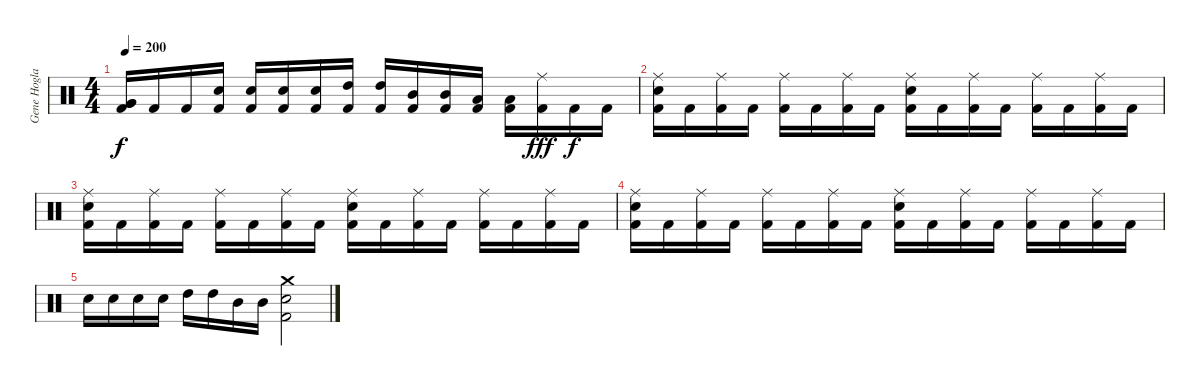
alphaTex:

\track ("Gene Hoglan" "Gene Hogla") {instrument percussion}
\staff {score}
\articulation defaults
\ts (4 4)
\tempo 200
\clef neutral
\ks c
("Very Low Tom (hit)" "Very Low Tom (hit)" "Kick (hit) 2").16{dy f} "Kick (hit) 2".16 "Kick (hit) 2".16 ("Snare (hit) 2" "Kick (hit) 2").16 ("Snare (hit) 2" "Kick (hit) 2").16 ("Snare (hit) 2" "Kick (hit) 2").16 ("Snare (hit) 2" "Kick (hit) 2").16 ("High Tom (hit)" "Kick (hit) 2").16 ("High Tom (hit)" "Kick (hit) 2").16 ("Mid Tom (hit)" "Kick (hit) 2").16 ("Mid Tom (hit)" "Kick (hit) 2").16 ("Low Tom (hit)" "Kick (hit) 2").16 ("Low Tom (hit)" "Kick (hit) 2").16 ("Ride (middle)" "Kick (hit) 2").16{dy fff} "Kick (hit) 2".16{dy f} "Kick (hit) 2".16 |
("Ride (middle)" "Snare (hit) 2" "Kick (hit) 2").16 "Kick (hit) 2".16 ("Ride (middle)" "Kick (hit) 2").16 "Kick (hit) 2".16 ("Ride (middle)" "Kick (hit) 2").16 "Kick (hit) 2".16 ("Ride (middle)" "Kick (hit) 2").16 "Kick (hit) 2".16 ("Ride (middle)" "Snare (hit) 2" "Kick (hit) 2").16 "Kick (hit) 2".16 ("Ride (middle)" "Kick (hit) 2").16 "Kick (hit) 2".16 ("Ride (middle)" "Kick (hit) 2").16 "Kick (hit) 2".16 ("Ride (middle)" "Kick (hit) 2").16 "Kick (hit) 2".16 |
("Ride (middle)" "Snare (hit) 2" "Kick (hit) 2").16 "Kick (hit) 2".16 ("Ride (middle)" "Kick (hit) 2").16 "Kick (hit) 2".16 ("Ride (middle)" "Kick (hit) 2").16 "Kick (hit) 2".16 ("Ride (middle)" "Kick (hit) 2").16 "Kick (hit) 2".16 ("Ride (middle)" "Snare (hit) 2" "Kick (hit) 2").16 "Kick (hit) 2".16 ("Ride (middle)" "Kick (hit) 2").16 "Kick (hit) 2".16 ("Ride (middle)" "Kick (hit) 2").16 "Kick (hit) 2".16 ("Ride (middle)" "Kick (hit) 2").16 "Kick (hit) 2".16 |
("Ride (middle)" "Snare (hit) 2" "Kick (hit) 2").16 "Kick (hit) 2".16 ("Ride (middle)" "Kick (hit) 2").16 "Kick (hit) 2".16 ("Ride (middle)" "Kick (hit) 2").16 "Kick (hit) 2".16 ("Ride (middle)" "Kick (hit) 2").16 "Kick (hit) 2".16 ("Ride (middle)" "Snare (hit) 2" "Kick (hit) 2").16 "Kick (hit) 2".16 ("Ride (middle)" "Kick (hit) 2").16 "Kick (hit) 2".16 ("Ride (middle)" "Kick (hit) 2").16 "Kick (hit) 2".16 ("Ride (middle)" "Kick (hit) 2").16 "Kick (hit) 2".16 |
"Snare (hit) 2".16 "Snare (hit) 2".16 "Snare (hit) 2".16 "Snare (hit) 2".16 "High Tom (hit)".16 "High Tom (hit)".16 "Mid Tom (hit)".16 "Mid Tom (hit)".16 ("Crash medium (hit)" "Snare (hit) 2" "Kick (hit) 2").2
